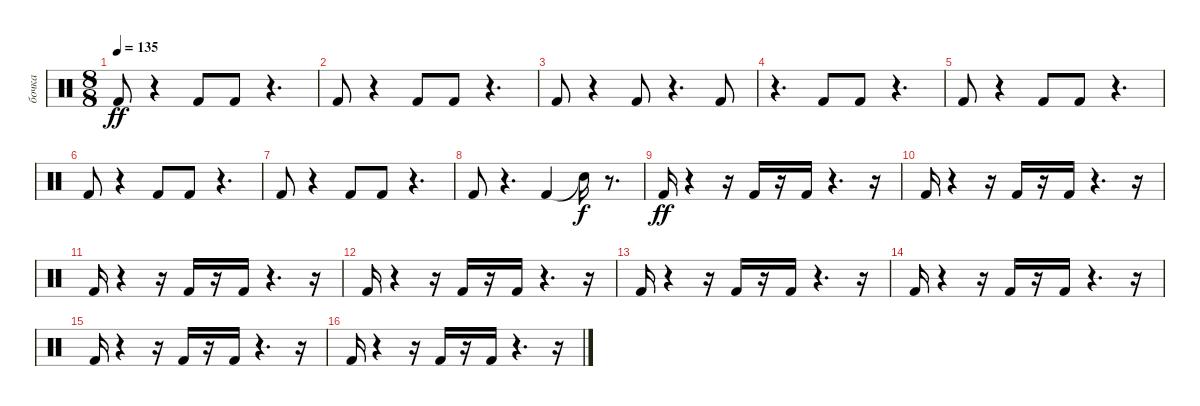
\track ("бочка" "бочка") {instrument percussion}
\staff {score}
\articulation defaults
\ts (8 8)
\tempo 135
\clef neutral
\ks c "Kick (hit) 2".8{dy ff}
r.4 "Kick (hit) 2".8 "Kick (hit) 2".8 r.4{d} |
"Kick (hit) 2".8 r.4 "Kick (hit) 2".8 "Kick (hit) 2".8 r.4{d} |
"Kick (hit) 2".8 r.4 "Kick (hit) 2".8 r.4{d} "Kick (hit) 2".8 |
r.4{d} "Kick (hit) 2".8 "Kick (hit) 2".8 r.4{d} |
"Kick (hit) 2".8 r.4 "Kick (hit) 2".8 "Kick (hit) 2".8 r.4{d} |
"Kick (hit) 2".8 r.4 "Kick (hit) 2".8 "Kick (hit) 2".8 r.4{d} |
"Kick (hit) 2".8 r.4 "Kick (hit) 2".8 "Kick (hit) 2".8 r.4{d} |
"Kick (hit) 2".8 r.4{d} "Kick (hit) 2".4 "Snare (hit)"{t}.16{dy f} r.8{d} |
"Kick (hit) 2".16{dy ff} r.4 r.16 "Kick (hit) 2".16 r.16 "Kick (hit) 2".16 r.4{d} r.16 |
"Kick (hit) 2".16 r.4 r.16 "Kick (hit) 2".16 r.16 "Kick (hit) 2".16 r.4{d} r.16 |
"Kick (hit) 2".16 r.4 r.16 "Kick (hit) 2".16 r.16 "Kick (hit) 2".16 r.4{d} r.16 |
"Kick (hit) 2".16 r.4 r.16 "Kick (hit) 2".16 r.16 "Kick (hit) 2".16 r.4{d} r.16 |
"Kick (hit) 2".16 r.4 r.16 "Kick (hit) 2".16 r.16 "Kick (hit) 2".16 r.4{d} r.16 |
"Kick (hit) 2".16 r.4 r.16 "Kick (hit) 2".16 r.16 "Kick (hit) 2".16 r.4{d} r.16 |
"Kick (hit) 2".16 r.4 r.16 "Kick (hit) 2".16 r.16 "Kick (hit) 2".16 r.4{d} r.16 |
"Kick (hit) 2".16 r.4 r.16 "Kick (hit) 2".16 r.16 "Kick (hit) 2".16 r.4{d} r.16
